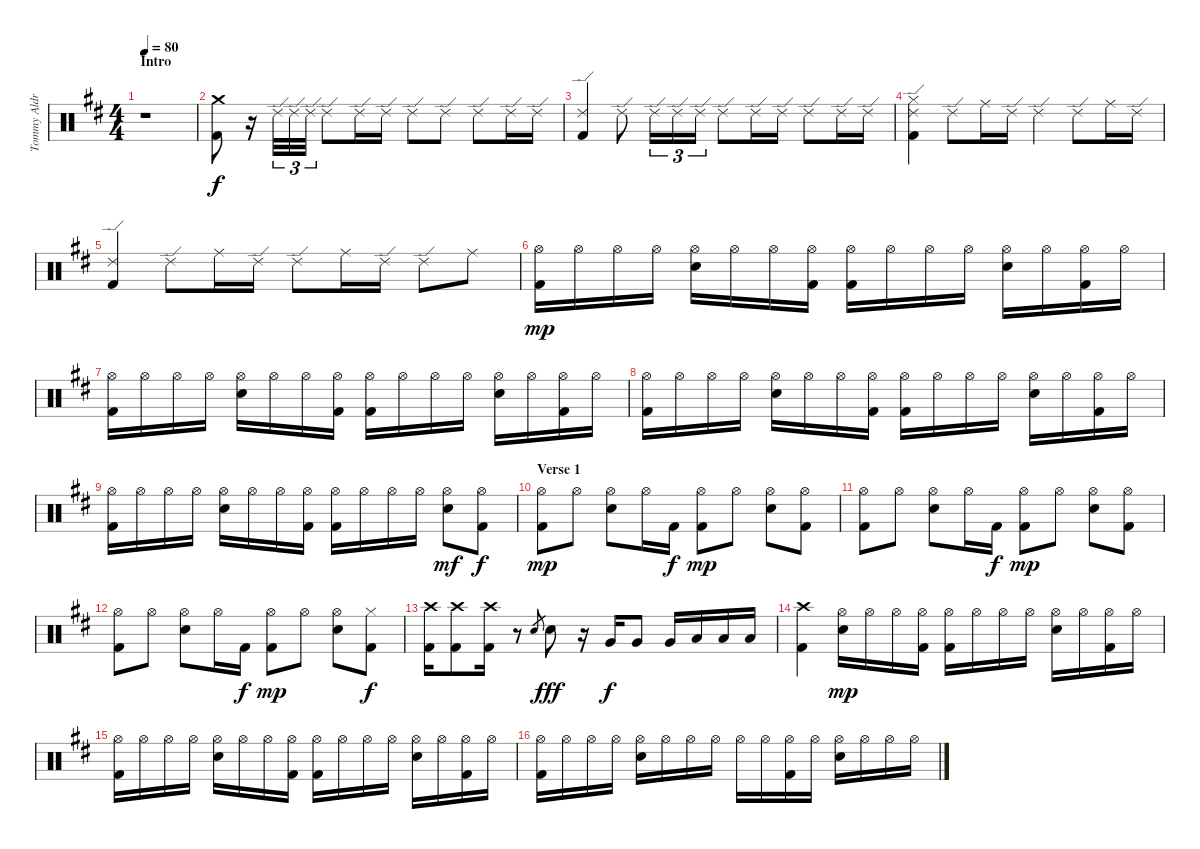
\track ("Tommy Aldridge" "Tommy Aldr") {instrument percussion}
\staff {score}
\articulation defaults
\ts (4 4)
\section ("" "Intro")
\tempo 80
\clef neutral
\ks bminor
r.1{dy f} |
("Crash medium (hit)" "Kick (hit) 2").8 r.16 "Ride (edge) 2".32{tu (3 2)} "Ride (edge) 2".32{tu (3 2)} "Ride (edge) 2".32{tu (3 2)} "Ride (edge) 2".8 "Ride (edge) 2".16 "Ride (edge) 2".16 "Ride (edge) 2".8 "Ride (edge) 2".8 "Ride (edge) 2".8 "Ride (edge) 2".16 "Ride (edge) 2".16 |
("Ride (edge) 2" "Kick (hit) 2").4 "Ride (edge) 2".8 "Ride (edge) 2".16{tu (3 2)} "Ride (edge) 2".16{tu (3 2)} "Ride (edge) 2".16{tu (3 2)} "Ride (edge) 2".8 "Ride (edge) 2".16 "Ride (edge) 2".16 "Ride (edge) 2".8 "Ride (edge) 2".16 "Ride (edge) 2".16 |
("Ride (edge) 2" "Hi-Hat (closed)" "Kick (hit) 2").4 "Ride (edge) 2".8 "Ride (middle)".16 "Ride (edge) 2".16 "Ride (edge) 2".4 "Ride (edge) 2".8 "Ride (middle)".16 "Ride (edge) 2".16 |
("Ride (edge) 2" "Kick (hit) 2").4 "Ride (edge) 2".8 "Ride (middle)".16 "Ride (edge) 2".16 "Ride (edge) 2".8 "Ride (middle)".16 "Ride (edge) 2".16 "Ride (edge) 2".8 "Ride (middle)".8 |
("Hi-Hat (open)" "Kick (hit) 2").16{dy mp} "Hi-Hat (open)".16 "Hi-Hat (open)".16 "Hi-Hat (open)".16 ("Hi-Hat (open)" "Snare (hit) 2").16 "Hi-Hat (open)".16 "Hi-Hat (open)".16 ("Hi-Hat (open)" "Kick (hit) 2").16 ("Hi-Hat (open)" "Kick (hit) 2").16 "Hi-Hat (open)".16 "Hi-Hat (open)".16 "Hi-Hat (open)".16 ("Hi-Hat (open)" "Snare (hit) 2").16 "Hi-Hat (open)".16 ("Hi-Hat (open)" "Kick (hit) 2").16 "Hi-Hat (open)".16 |
("Hi-Hat (open)" "Kick (hit) 2").16 "Hi-Hat (open)".16 "Hi-Hat (open)".16 "Hi-Hat (open)".16 ("Hi-Hat (open)" "Snare (hit) 2").16 "Hi-Hat (open)".16 "Hi-Hat (open)".16 ("Hi-Hat (open)" "Kick (hit) 2").16 ("Hi-Hat (open)" "Kick (hit) 2").16 "Hi-Hat (open)".16 "Hi-Hat (open)".16 "Hi-Hat (open)".16 ("Hi-Hat (open)" "Snare (hit) 2").16 "Hi-Hat (open)".16 ("Hi-Hat (open)" "Kick (hit) 2").16 "Hi-Hat (open)".16 |
("Hi-Hat (open)" "Kick (hit) 2").16 "Hi-Hat (open)".16 "Hi-Hat (open)".16 "Hi-Hat (open)".16 ("Hi-Hat (open)" "Snare (hit) 2").16 "Hi-Hat (open)".16 "Hi-Hat (open)".16 ("Hi-Hat (open)" "Kick (hit) 2").16 ("Hi-Hat (open)" "Kick (hit) 2").16 "Hi-Hat (open)".16 "Hi-Hat (open)".16 "Hi-Hat (open)".16 ("Hi-Hat (open)" "Snare (hit) 2").16 "Hi-Hat (open)".16 ("Hi-Hat (open)" "Kick (hit) 2").16 "Hi-Hat (open)".16 |
("Hi-Hat (open)" "Kick (hit) 2").16 "Hi-Hat (open)".16 "Hi-Hat (open)".16 "Hi-Hat (open)".16 ("Hi-Hat (open)" "Snare (hit) 2").16 "Hi-Hat (open)".16 "Hi-Hat (open)".16 ("Hi-Hat (open)" "Kick (hit) 2").16 ("Hi-Hat (open)" "Kick (hit) 2").16 "Hi-Hat (open)".16 "Hi-Hat (open)".16 "Hi-Hat (open)".16 ("Hi-Hat (open)" "Snare (hit) 2").8{dy mf} ("Hi-Hat (open)" "Kick (hit) 2").8{dy f} |
\section ("" "Verse 1")
("Hi-Hat (open)" "Kick (hit) 2").8{dy mp} "Hi-Hat (open)".8 ("Hi-Hat (open)" "Snare (hit) 2").8 "Hi-Hat (open)".16 "Kick (hit) 2".16{dy f} ("Hi-Hat (open)" "Kick (hit) 2").8{dy mp} "Hi-Hat (open)".8 ("Hi-Hat (open)" "Snare (hit) 2").8 ("Hi-Hat (open)" "Kick (hit) 2").8 |
("Hi-Hat (open)" "Kick (hit) 2").8 "Hi-Hat (open)".8 ("Hi-Hat (open)" "Snare (hit) 2").8 "Hi-Hat (open)".16 "Kick (hit) 2".16{dy f} ("Hi-Hat (open)" "Kick (hit) 2").8{dy mp} "Hi-Hat (open)".8 ("Hi-Hat (open)" "Snare (hit) 2").8 ("Hi-Hat (open)" "Kick (hit) 2").8 |
("Hi-Hat (open)" "Kick (hit) 2").8 "Hi-Hat (open)".8 ("Hi-Hat (open)" "Snare (hit) 2").8 "Hi-Hat (open)".16 "Kick (hit) 2".16{dy f} ("Hi-Hat (open)" "Kick (hit) 2").8{dy mp} "Hi-Hat (open)".8 ("Hi-Hat (open)" "Snare (hit) 2").8 ("Hi-Hat (closed)" "Kick (hit) 2").8{dy f} |
("Crash high (hit)" "Kick (hit) 2").16 ("Crash high (hit)" "Kick (hit) 2").8 ("Crash high (hit)" "Kick (hit) 2").16 r.8 "Snare (hit) 2".8{gr} "Snare (hit) 2".8{dy fff} r.16 "Very Low Tom (hit)".16{dy f} "Very Low Tom (hit)".8 "Very Low Tom (hit)".16 "Low Floor Tom (hit)".16 "Low Floor Tom (hit)".16 "Low Floor Tom (hit)".16 |
("Crash high (hit)" "Kick (hit) 2").4 ("Hi-Hat (open)" "Snare (hit) 2").16{dy mp} "Hi-Hat (open)".16 "Hi-Hat (open)".16 ("Hi-Hat (open)" "Kick (hit) 2").16 ("Hi-Hat (open)" "Kick (hit) 2").16 "Hi-Hat (open)".16 "Hi-Hat (open)".16 "Hi-Hat (open)".16 ("Hi-Hat (open)" "Snare (hit) 2").16 "Hi-Hat (open)".16 ("Hi-Hat (open)" "Kick (hit) 2").16 "Hi-Hat (open)".16 |
("Hi-Hat (open)" "Kick (hit) 2").16 "Hi-Hat (open)".16 "Hi-Hat (open)".16 "Hi-Hat (open)".16 ("Hi-Hat (open)" "Snare (hit) 2").16 "Hi-Hat (open)".16 "Hi-Hat (open)".16 ("Hi-Hat (open)" "Kick (hit) 2").16 ("Hi-Hat (open)" "Kick (hit) 2").16 "Hi-Hat (open)".16 "Hi-Hat (open)".16 "Hi-Hat (open)".16 ("Hi-Hat (open)" "Snare (hit) 2").16 "Hi-Hat (open)".16 ("Hi-Hat (open)" "Kick (hit) 2").16 "Hi-Hat (open)".16 |
("Hi-Hat (open)" "Kick (hit) 2").16 "Hi-Hat (open)".16 "Hi-Hat (open)".16 "Hi-Hat (open)".16 ("Hi-Hat (open)" "Snare (hit) 2").16 "Hi-Hat (open)".16 "Hi-Hat (open)".16 "Hi-Hat (open)".16 "Hi-Hat (open)".16 "Hi-Hat (open)".16 ("Hi-Hat (open)" "Kick (hit) 2").16 "Hi-Hat (open)".16 ("Hi-Hat (open)" "Snare (hit) 2").16 "Hi-Hat (open)".16 "Hi-Hat (open)".16 "Hi-Hat (open)".16
